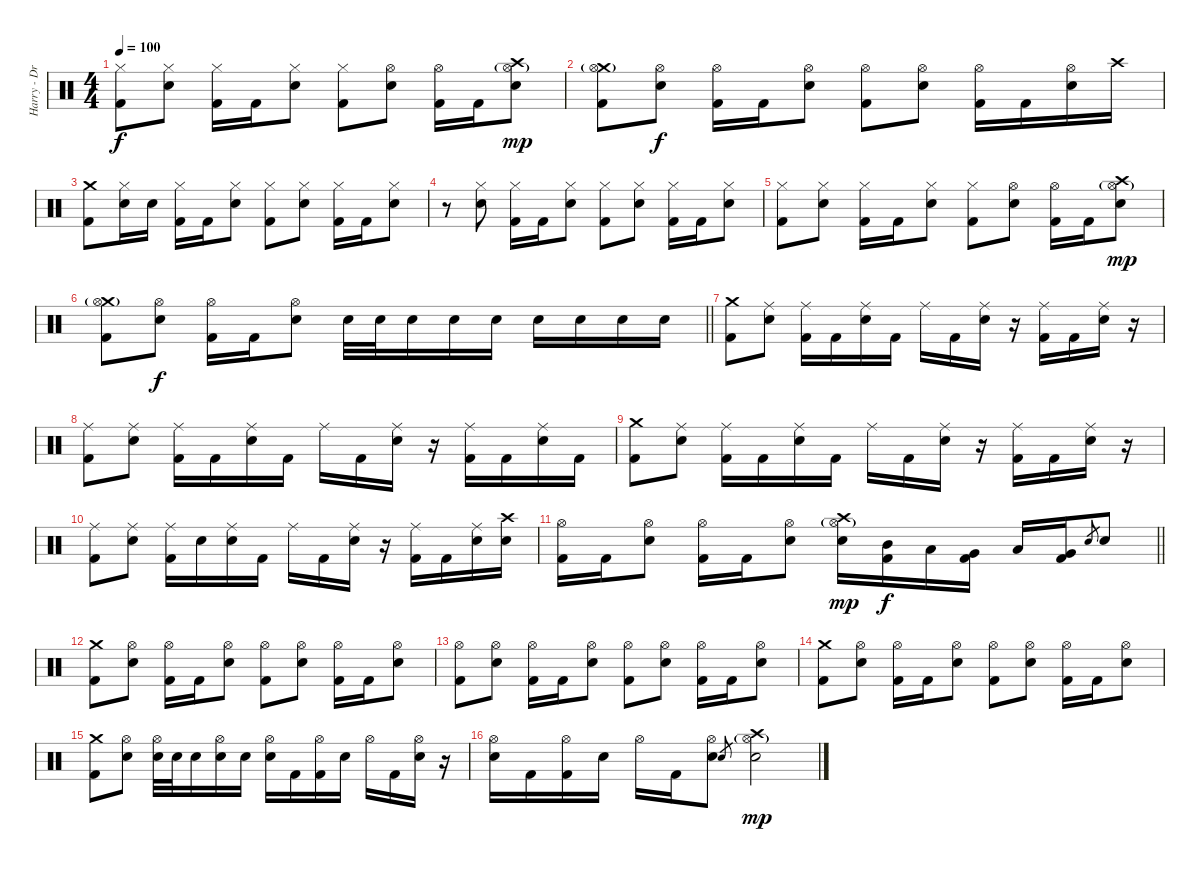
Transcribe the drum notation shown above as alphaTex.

\track ("Harry - Drums" "Harry - Dr") {instrument percussion}
\staff {score}
\articulation defaults
\ts (4 4)
\tempo 100
\clef neutral
\ks c
("Hi-Hat (closed)" "Kick (hit) 2").8{dy f} ("Hi-Hat (closed)" "Electric Snare (hit)").8 ("Hi-Hat (closed)" "Kick (hit) 2").16 "Kick (hit) 2".16 ("Hi-Hat (closed)" "Electric Snare (hit)").8 ("Hi-Hat (closed)" "Kick (hit) 2").8 ("Hi-Hat (open)" "Electric Snare (hit)").8 ("Hi-Hat (open)" "Kick (hit) 2").16 "Kick (hit) 2".16 ("Crash high (hit)" "Hi-Hat (open)"{g} "Electric Snare (hit)").8{dy mp} |
("Crash medium (hit)" "Hi-Hat (open)"{g} "Kick (hit) 2").8 ("Hi-Hat (open)" "Electric Snare (hit)").8{dy f} ("Hi-Hat (open)" "Kick (hit) 2").16 "Kick (hit) 2".16 ("Hi-Hat (open)" "Electric Snare (hit)").8 ("Hi-Hat (open)" "Kick (hit) 2").8 ("Hi-Hat (open)" "Electric Snare (hit)").8 ("Hi-Hat (open)" "Kick (hit) 2").16 "Kick (hit) 2".16 ("Hi-Hat (open)" "Electric Snare (hit)").16 "Crash high (hit)".16 |
("Crash medium (hit)" "Kick (hit) 2").8 ("Hi-Hat (closed)" "Electric Snare (hit)").16 "Snare (hit) 2".16 ("Hi-Hat (closed)" "Kick (hit) 2").16 "Kick (hit) 2".16 ("Hi-Hat (closed)" "Electric Snare (hit)").8 ("Hi-Hat (closed)" "Kick (hit) 2").8 ("Hi-Hat (closed)" "Electric Snare (hit)").8 ("Hi-Hat (closed)" "Kick (hit) 2").16 "Kick (hit) 2".16 ("Hi-Hat (closed)" "Electric Snare (hit)").8 |
r.8 ("Hi-Hat (closed)" "Electric Snare (hit)").8 ("Hi-Hat (closed)" "Kick (hit) 2").16 "Kick (hit) 2".16 ("Hi-Hat (closed)" "Electric Snare (hit)").8 ("Hi-Hat (closed)" "Kick (hit) 2").8 ("Hi-Hat (closed)" "Electric Snare (hit)").8 ("Hi-Hat (closed)" "Kick (hit) 2").16 "Kick (hit) 2".16 ("Hi-Hat (closed)" "Electric Snare (hit)").8 |
("Hi-Hat (closed)" "Kick (hit) 2").8 ("Hi-Hat (closed)" "Electric Snare (hit)").8 ("Hi-Hat (closed)" "Kick (hit) 2").16 "Kick (hit) 2".16 ("Hi-Hat (closed)" "Electric Snare (hit)").8 ("Hi-Hat (closed)" "Kick (hit) 2").8 ("Hi-Hat (open)" "Electric Snare (hit)").8 ("Hi-Hat (open)" "Kick (hit) 2").16 "Kick (hit) 2".16 ("Crash high (hit)" "Hi-Hat (open)"{g} "Electric Snare (hit)").8{dy mp} |
\barLineRight lightlight
("Crash medium (hit)" "Hi-Hat (open)"{g} "Kick (hit) 2").8 ("Hi-Hat (open)" "Electric Snare (hit)").8{dy f} ("Hi-Hat (open)" "Kick (hit) 2").16 "Kick (hit) 2".16 ("Hi-Hat (open)" "Electric Snare (hit)").8 "Electric Snare (hit)".32 "Electric Snare (hit)".32 "Electric Snare (hit)".16 "Electric Snare (hit)".16 "Electric Snare (hit)".16 "Electric Snare (hit)".16 "Electric Snare (hit)".16 "Electric Snare (hit)".16 "Electric Snare (hit)".16 |
("Crash medium (hit)" "Kick (hit) 2").8 ("Ride (middle)" "Electric Snare (hit)").8 ("Ride (middle)" "Kick (hit) 2").16 "Kick (hit) 2".16 ("Ride (middle)" "Electric Snare (hit)").16 "Kick (hit) 2".16 "Ride (middle)".16 "Kick (hit) 2".16 ("Ride (middle)" "Electric Snare (hit)").16 r.16 ("Ride (middle)" "Kick (hit) 2").16 "Kick (hit) 2".16 ("Ride (middle)" "Electric Snare (hit)").16 r.16 |
("Ride (middle)" "Kick (hit) 2").8 ("Ride (middle)" "Electric Snare (hit)").8 ("Ride (middle)" "Kick (hit) 2").16 "Kick (hit) 2".16 ("Ride (middle)" "Electric Snare (hit)").16 "Kick (hit) 2".16 "Ride (middle)".16 "Kick (hit) 2".16 ("Ride (middle)" "Electric Snare (hit)").16 r.16 ("Ride (middle)" "Kick (hit) 2").16 "Kick (hit) 2".16 ("Ride (middle)" "Electric Snare (hit)").16 "Kick (hit) 2".16 |
("Crash medium (hit)" "Kick (hit) 2").8 ("Ride (middle)" "Electric Snare (hit)").8 ("Ride (middle)" "Kick (hit) 2").16 "Kick (hit) 2".16 ("Ride (middle)" "Electric Snare (hit)").16 "Kick (hit) 2".16 "Ride (middle)".16 "Kick (hit) 2".16 ("Ride (middle)" "Electric Snare (hit)").16 r.16 ("Ride (middle)" "Kick (hit) 2").16 "Kick (hit) 2".16 ("Ride (middle)" "Electric Snare (hit)").16 r.16 |
("Ride (middle)" "Kick (hit) 2").8 ("Ride (middle)" "Electric Snare (hit)").8 ("Ride (middle)" "Kick (hit) 2").16 "Electric Snare (hit)".16 ("Ride (middle)" "Electric Snare (hit)").16 "Kick (hit) 2".16 "Ride (middle)".16 "Kick (hit) 2".16 ("Ride (middle)" "Electric Snare (hit)").16 r.16 ("Ride (middle)" "Kick (hit) 2").16 "Kick (hit) 2".16 ("Ride (middle)" "Electric Snare (hit)").16 ("Crash high (hit)" "Electric Snare (hit)").16 |
\barLineRight lightlight
("Hi-Hat (open)" "Kick (hit) 2").16 "Kick (hit) 2".16 ("Hi-Hat (open)" "Electric Snare (hit)").8 ("Hi-Hat (open)" "Kick (hit) 2").16 "Kick (hit) 2".16 ("Hi-Hat (open)" "Electric Snare (hit)").8 ("Crash high (hit)" "Hi-Hat (open)"{g} "Electric Snare (hit)").16{dy mp} ("Mid Tom (hit)" "Kick (hit) 2").16{dy f} "Low Tom (hit)".16 ("Very Low Tom (hit)" "Kick (hit) 2").16 "Low Tom (hit)".16 ("Very Low Tom (hit)" "Kick (hit) 2").16 "Electric Snare (hit)".8{gr} "Electric Snare (hit)".8 |
("Crash medium (hit)" "Kick (hit) 2").8 ("Hi-Hat (open)" "Electric Snare (hit)").8 ("Hi-Hat (open)" "Kick (hit) 2").16 "Kick (hit) 2".16 ("Hi-Hat (open)" "Electric Snare (hit)").8 ("Hi-Hat (open)" "Kick (hit) 2").8 ("Hi-Hat (open)" "Electric Snare (hit)").8 ("Hi-Hat (open)" "Kick (hit) 2").16 "Kick (hit) 2".16 ("Hi-Hat (open)" "Electric Snare (hit)").8 |
("Hi-Hat (open)" "Kick (hit) 2").8 ("Hi-Hat (open)" "Electric Snare (hit)").8 ("Hi-Hat (open)" "Kick (hit) 2").16 "Kick (hit) 2".16 ("Hi-Hat (open)" "Electric Snare (hit)").8 ("Hi-Hat (open)" "Kick (hit) 2").8 ("Hi-Hat (open)" "Electric Snare (hit)").8 ("Hi-Hat (open)" "Kick (hit) 2").16 "Kick (hit) 2".16 ("Hi-Hat (open)" "Electric Snare (hit)").8 |
("Crash medium (hit)" "Kick (hit) 2").8 ("Hi-Hat (open)" "Electric Snare (hit)").8 ("Hi-Hat (open)" "Kick (hit) 2").16 "Kick (hit) 2".16 ("Hi-Hat (open)" "Electric Snare (hit)").8 ("Hi-Hat (open)" "Kick (hit) 2").8 ("Hi-Hat (open)" "Electric Snare (hit)").8 ("Hi-Hat (open)" "Kick (hit) 2").16 "Kick (hit) 2".16 ("Hi-Hat (open)" "Electric Snare (hit)").8 |
("Crash medium (hit)" "Kick (hit) 2").8 ("Hi-Hat (open)" "Electric Snare (hit)").8 ("Hi-Hat (open)" "Electric Snare (hit)").32 "Electric Snare (hit)".32 "Electric Snare (hit)".16 ("Hi-Hat (open)" "Electric Snare (hit)").16 "Electric Snare (hit)".16 ("Hi-Hat (open)" "Electric Snare (hit)").16 "Kick (hit) 2".16 ("Hi-Hat (open)" "Kick (hit) 2").16 "Electric Snare (hit)".16 "Hi-Hat (open)".16 "Kick (hit) 2".16 ("Hi-Hat (open)" "Electric Snare (hit)").16 r.16 |
("Hi-Hat (open)" "Electric Snare (hit)").16 "Kick (hit) 2".16 ("Hi-Hat (open)" "Kick (hit) 2").16 "Electric Snare (hit)".16 "Hi-Hat (open)".16 "Kick (hit) 2".16 ("Hi-Hat (open)" "Electric Snare (hit)").8 "Electric Snare (hit)".8{gr} ("Crash high (hit)" "Hi-Hat (open)"{g} "Electric Snare (hit)").2{dy mp}
